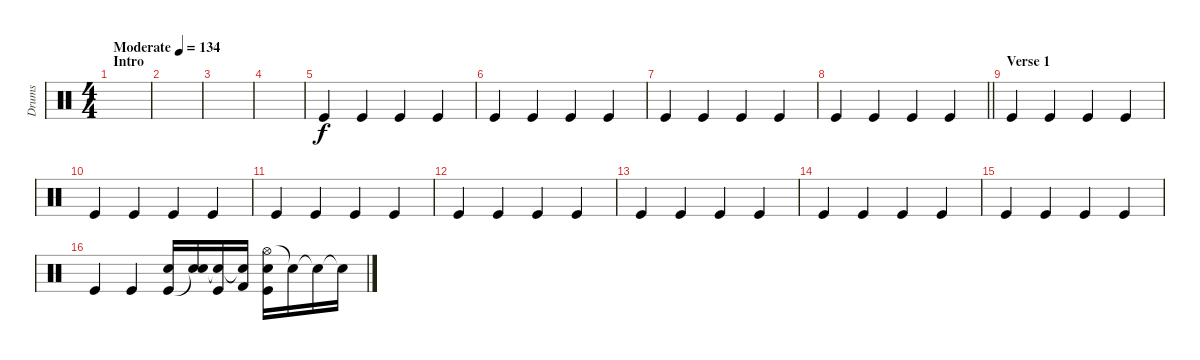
\track ("Drums" "Drums") {solo instrument percussion}
\staff {score}
\articulation defaults
\ts (4 4)
\section ("" "Intro")
\tempo (134 "Moderate")
\clef neutral
\ks c
|
|
|
|
"Kick (hit)".4 "Kick (hit)".4 "Kick (hit)".4 "Kick (hit)".4 |
"Kick (hit)".4 "Kick (hit)".4 "Kick (hit)".4 "Kick (hit)".4 |
"Kick (hit)".4 "Kick (hit)".4 "Kick (hit)".4 "Kick (hit)".4 |
\barLineRight lightlight "Kick (hit)".4 "Kick (hit)".4 "Kick (hit)".4 "Kick (hit)".4
|
\section ("" "Verse 1")
"Kick (hit)".4 "Kick (hit)".4 "Kick (hit)".4 "Kick (hit)".4 |
"Kick (hit)".4 "Kick (hit)".4 "Kick (hit)".4 "Kick (hit)".4 |
"Kick (hit)".4 "Kick (hit)".4 "Kick (hit)".4 "Kick (hit)".4 |
"Kick (hit)".4 "Kick (hit)".4 "Kick (hit)".4 "Kick (hit)".4 |
"Kick (hit)".4 "Kick (hit)".4 "Kick (hit)".4 "Kick (hit)".4 |
"Kick (hit)".4 "Kick (hit)".4 "Kick (hit)".4 "Kick (hit)".4 |
"Kick (hit)".4 "Kick (hit)".4 "Kick (hit)".4 "Kick (hit)".4 |
"Kick (hit)".4 "Kick (hit)".4 ("Kick (hit)" "Snare (hit) 2").16 ("Snare (hit)"{t} "Snare (hit) 2").16 ("Snare (hit)"{t} "Kick (hit)").16 ("Snare (hit)"{t} "Kick (hit) 2").16 ("Hi-Hat (open)" "Kick (hit)" "Snare (hit) 2").16 "Snare (hit)"{t}.16 "Snare (hit)"{t}.16 "Snare (hit)"{t}.16
